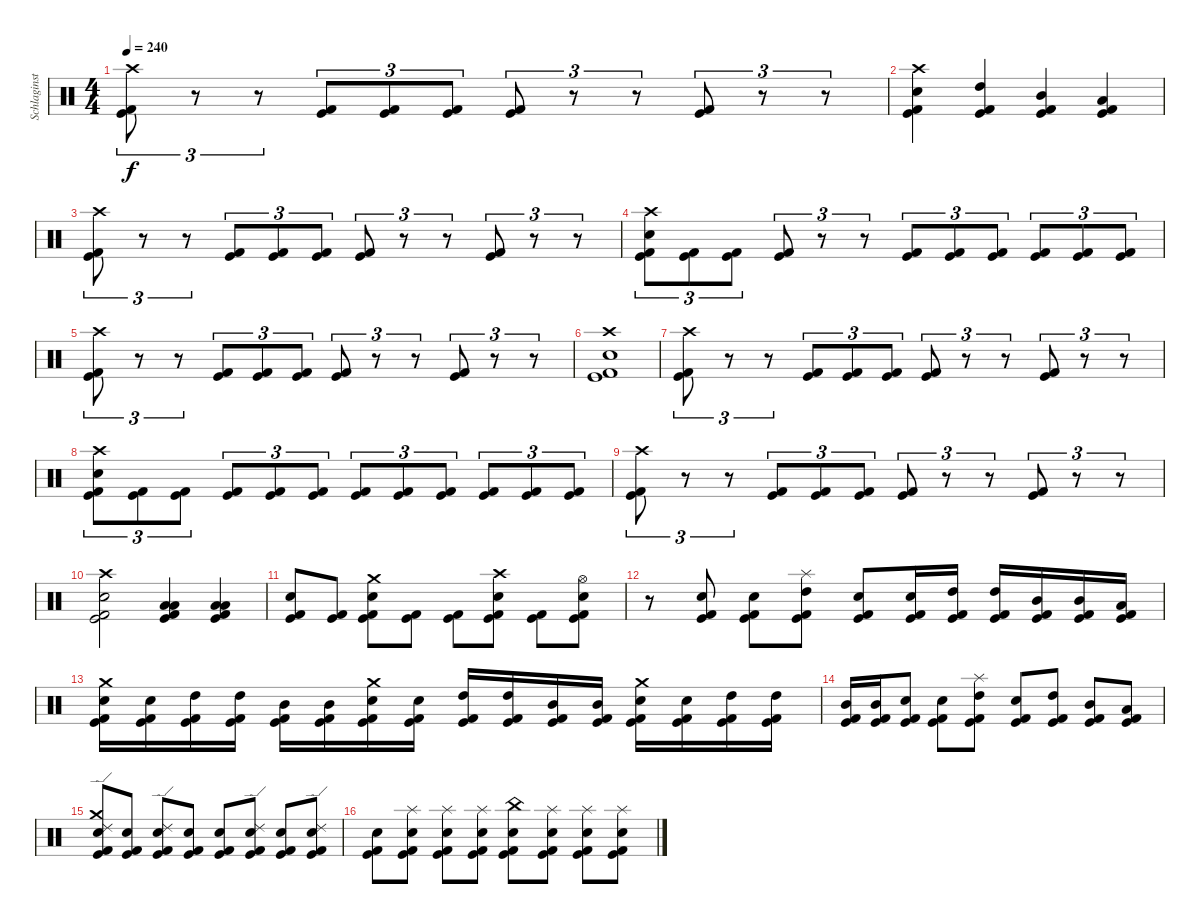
\track ("Schlaginstrumente - Auswahl" "Schlaginst") {instrument percussion}
\staff {score}
\articulation defaults
\ts (4 4)
\tempo 240
\clef neutral
\ks c
("Crash high (hit)" "Kick (hit)" "Kick (hit) 2").8{tu (3 2) dy f} r.8{tu (3 2)} r.8{tu (3 2)} ("Kick (hit)" "Kick (hit) 2").8{tu (3 2)} ("Kick (hit)" "Kick (hit) 2").8{tu (3 2)} ("Kick (hit)" "Kick (hit) 2").8{tu (3 2)} ("Kick (hit)" "Kick (hit) 2").8{tu (3 2)} r.8{tu (3 2)} r.8{tu (3 2)} ("Kick (hit)" "Kick (hit) 2").8{tu (3 2)} r.8{tu (3 2)} r.8{tu (3 2)} |
("Crash high (hit)" "Electric Snare (hit)" "Kick (hit)" "Kick (hit) 2").4 ("High Tom (hit)" "Kick (hit)" "Kick (hit) 2").4 ("Mid Tom (hit)" "Kick (hit)" "Kick (hit) 2").4 ("Low Tom (hit)" "Kick (hit)" "Kick (hit) 2").4 |
("Crash high (hit)" "Kick (hit)" "Kick (hit) 2").8{tu (3 2)} r.8{tu (3 2)} r.8{tu (3 2)} ("Kick (hit)" "Kick (hit) 2").8{tu (3 2)} ("Kick (hit)" "Kick (hit) 2").8{tu (3 2)} ("Kick (hit)" "Kick (hit) 2").8{tu (3 2)} ("Kick (hit)" "Kick (hit) 2").8{tu (3 2)} r.8{tu (3 2)} r.8{tu (3 2)} ("Kick (hit)" "Kick (hit) 2").8{tu (3 2)} r.8{tu (3 2)} r.8{tu (3 2)} |
("Crash high (hit)" "Electric Snare (hit)" "Kick (hit)" "Kick (hit) 2").8{tu (3 2)} ("Kick (hit)" "Kick (hit) 2").8{tu (3 2)} ("Kick (hit)" "Kick (hit) 2").8{tu (3 2)} ("Kick (hit)" "Kick (hit) 2").8{tu (3 2)} r.8{tu (3 2)} r.8{tu (3 2)} ("Kick (hit)" "Kick (hit) 2").8{tu (3 2)} ("Kick (hit)" "Kick (hit) 2").8{tu (3 2)} ("Kick (hit)" "Kick (hit) 2").8{tu (3 2)} ("Kick (hit)" "Kick (hit) 2").8{tu (3 2)} ("Kick (hit)" "Kick (hit) 2").8{tu (3 2)} ("Kick (hit)" "Kick (hit) 2").8{tu (3 2)} |
("Crash high (hit)" "Kick (hit)" "Kick (hit) 2").8{tu (3 2)} r.8{tu (3 2)} r.8{tu (3 2)} ("Kick (hit)" "Kick (hit) 2").8{tu (3 2)} ("Kick (hit)" "Kick (hit) 2").8{tu (3 2)} ("Kick (hit)" "Kick (hit) 2").8{tu (3 2)} ("Kick (hit)" "Kick (hit) 2").8{tu (3 2)} r.8{tu (3 2)} r.8{tu (3 2)} ("Kick (hit)" "Kick (hit) 2").8{tu (3 2)} r.8{tu (3 2)} r.8{tu (3 2)} |
("Crash high (hit)" "Electric Snare (hit)" "Kick (hit)" "Kick (hit) 2").1 |
("Crash high (hit)" "Kick (hit)" "Kick (hit) 2").8{tu (3 2)} r.8{tu (3 2)} r.8{tu (3 2)} ("Kick (hit)" "Kick (hit) 2").8{tu (3 2)} ("Kick (hit)" "Kick (hit) 2").8{tu (3 2)} ("Kick (hit)" "Kick (hit) 2").8{tu (3 2)} ("Kick (hit)" "Kick (hit) 2").8{tu (3 2)} r.8{tu (3 2)} r.8{tu (3 2)} ("Kick (hit)" "Kick (hit) 2").8{tu (3 2)} r.8{tu (3 2)} r.8{tu (3 2)} |
("Crash high (hit)" "Electric Snare (hit)" "Kick (hit)" "Kick (hit) 2").8{tu (3 2)} ("Kick (hit)" "Kick (hit) 2").8{tu (3 2)} ("Kick (hit)" "Kick (hit) 2").8{tu (3 2)} ("Kick (hit)" "Kick (hit) 2").8{tu (3 2)} ("Kick (hit)" "Kick (hit) 2").8{tu (3 2)} ("Kick (hit)" "Kick (hit) 2").8{tu (3 2)} ("Kick (hit)" "Kick (hit) 2").8{tu (3 2)} ("Kick (hit)" "Kick (hit) 2").8{tu (3 2)} ("Kick (hit)" "Kick (hit) 2").8{tu (3 2)} ("Kick (hit)" "Kick (hit) 2").8{tu (3 2)} ("Kick (hit)" "Kick (hit) 2").8{tu (3 2)} ("Kick (hit)" "Kick (hit) 2").8{tu (3 2)} |
("Crash high (hit)" "Kick (hit)" "Kick (hit) 2").8{tu (3 2)} r.8{tu (3 2)} r.8{tu (3 2)} ("Kick (hit)" "Kick (hit) 2").8{tu (3 2)} ("Kick (hit)" "Kick (hit) 2").8{tu (3 2)} ("Kick (hit)" "Kick (hit) 2").8{tu (3 2)} ("Kick (hit)" "Kick (hit) 2").8{tu (3 2)} r.8{tu (3 2)} r.8{tu (3 2)} ("Kick (hit)" "Kick (hit) 2").8{tu (3 2)} r.8{tu (3 2)} r.8{tu (3 2)} |
("Crash high (hit)" "Electric Snare (hit)" "Kick (hit)" "Kick (hit) 2").2 ("Low Floor Tom (hit)" "Low Floor Tom (hit)" "Kick (hit)" "Kick (hit) 2").4 ("Low Floor Tom (hit)" "Low Floor Tom (hit)" "Kick (hit)" "Kick (hit) 2").4 |
("Electric Snare (hit)" "Kick (hit)" "Kick (hit) 2").8 ("Kick (hit)" "Kick (hit) 2").8 ("Crash medium (hit)" "Electric Snare (hit)" "Kick (hit)" "Kick (hit) 2").8 ("Kick (hit)" "Kick (hit) 2").8 ("Kick (hit)" "Kick (hit) 2").8 ("Crash high (hit)" "Electric Snare (hit)" "Kick (hit)" "Kick (hit) 2").8 ("Kick (hit)" "Kick (hit) 2").8 ("Hi-Hat (open)" "Electric Snare (hit)" "Kick (hit)" "Kick (hit) 2").8 |
r.8 ("Electric Snare (hit)" "Kick (hit)" "Kick (hit) 2").8 ("Electric Snare (hit)" "Kick (hit)" "Kick (hit) 2").8 ("Splash (hit)" "High Tom (hit)" "Kick (hit)" "Kick (hit) 2").8 ("Electric Snare (hit)" "Kick (hit)" "Kick (hit) 2").8 ("Electric Snare (hit)" "Kick (hit)" "Kick (hit) 2").16 ("High Tom (hit)" "Kick (hit)" "Kick (hit) 2").16 ("High Tom (hit)" "Kick (hit)" "Kick (hit) 2").16 ("Mid Tom (hit)" "Kick (hit)" "Kick (hit) 2").16 ("Mid Tom (hit)" "Kick (hit)" "Kick (hit) 2").16 ("Low Tom (hit)" "Kick (hit)" "Kick (hit) 2").16 |
("Crash medium (hit)" "Electric Snare (hit)" "Kick (hit)" "Kick (hit) 2").16 ("Electric Snare (hit)" "Kick (hit)" "Kick (hit) 2").16 ("High Tom (hit)" "Kick (hit)" "Kick (hit) 2").16 ("High Tom (hit)" "Kick (hit)" "Kick (hit) 2").16 ("Mid Tom (hit)" "Kick (hit)" "Kick (hit) 2").16 ("Mid Tom (hit)" "Kick (hit)" "Kick (hit) 2").16 ("Crash medium (hit)" "Electric Snare (hit)" "Kick (hit)" "Kick (hit) 2").16 ("Electric Snare (hit)" "Kick (hit)" "Kick (hit) 2").16 ("High Tom (hit)" "Kick (hit)" "Kick (hit) 2").16 ("High Tom (hit)" "Kick (hit)" "Kick (hit) 2").16 ("Mid Tom (hit)" "Kick (hit)" "Kick (hit) 2").16 ("Mid Tom (hit)" "Kick (hit)" "Kick (hit) 2").16 ("Crash medium (hit)" "Electric Snare (hit)" "Kick (hit)" "Kick (hit) 2").16 ("Electric Snare (hit)" "Kick (hit)" "Kick (hit) 2").16 ("High Tom (hit)" "Kick (hit)" "Kick (hit) 2").16 ("High Tom (hit)" "Kick (hit)" "Kick (hit) 2").16 |
("Mid Tom (hit)" "Kick (hit)" "Kick (hit) 2").16 ("Mid Tom (hit)" "Kick (hit)" "Kick (hit) 2").16 ("Electric Snare (hit)" "Kick (hit)" "Kick (hit) 2").8 ("Electric Snare (hit)" "Kick (hit)" "Kick (hit) 2").8 ("Splash (hit)" "High Tom (hit)" "Kick (hit)" "Kick (hit) 2").8 ("Electric Snare (hit)" "Kick (hit)" "Kick (hit) 2").8 ("High Tom (hit)" "Kick (hit)" "Kick (hit) 2").8 ("Mid Tom (hit)" "Kick (hit)" "Kick (hit) 2").8 ("Low Tom (hit)" "Kick (hit)" "Kick (hit) 2").8 |
("Crash medium (hit)" "Ride (edge) 2" "Electric Snare (hit)" "Kick (hit)" "Kick (hit) 2").8 ("Electric Snare (hit)" "Kick (hit)" "Kick (hit) 2").8 ("Ride (edge) 2" "Electric Snare (hit)" "Kick (hit)" "Kick (hit) 2").8 ("Electric Snare (hit)" "Kick (hit)" "Kick (hit) 2").8 ("Electric Snare (hit)" "Kick (hit)" "Kick (hit) 2").8 ("Ride (edge) 2" "Electric Snare (hit)" "Kick (hit)" "Kick (hit) 2").8 ("Electric Snare (hit)" "Kick (hit)" "Kick (hit) 2").8 ("Ride (edge) 2" "Electric Snare (hit)" "Kick (hit)" "Kick (hit) 2").8 |
("Electric Snare (hit)" "Kick (hit)" "Kick (hit) 2").8 ("Splash (hit)" "Electric Snare (hit)" "Kick (hit)" "Kick (hit) 2").8 ("Splash (hit)" "Electric Snare (hit)" "Kick (hit)" "Kick (hit) 2").8 ("Splash (hit)" "Electric Snare (hit)" "Kick (hit)" "Kick (hit) 2").8 ("China (hit)" "Electric Snare (hit)" "Kick (hit)" "Kick (hit) 2").8 ("Splash (hit)" "Electric Snare (hit)" "Kick (hit)" "Kick (hit) 2").8 ("Splash (hit)" "Electric Snare (hit)" "Kick (hit)" "Kick (hit) 2").8 ("Splash (hit)" "Electric Snare (hit)" "Kick (hit)" "Kick (hit) 2").8
